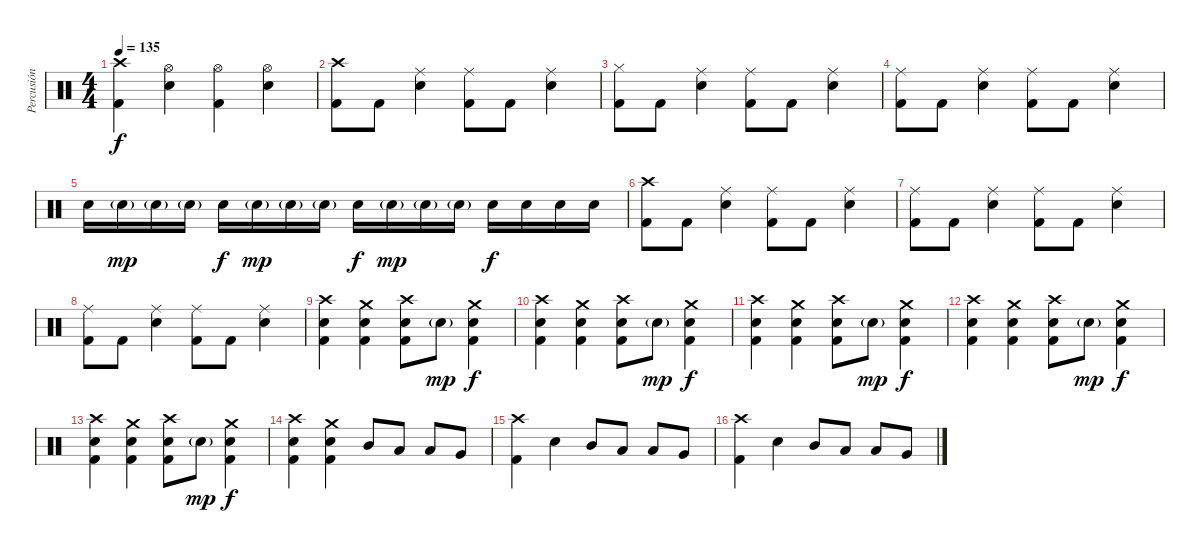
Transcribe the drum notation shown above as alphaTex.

\track ("Percusión" "Percusión") {instrument percussion}
\staff {score}
\articulation defaults
\ts (4 4)
\tempo 135
\clef neutral
\ks c
("Crash high (hit)" "Kick (hit) 2").4{dy f} ("Hi-Hat (open)" "Electric Snare (hit)").4 ("Hi-Hat (open)" "Kick (hit) 2").4 ("Hi-Hat (open)" "Electric Snare (hit)").4 |
("Crash high (hit)" "Kick (hit) 2").8 "Kick (hit) 2".8 ("Ride (middle)" "Electric Snare (hit)").4 ("Ride (middle)" "Kick (hit) 2").8 "Kick (hit) 2".8 ("Ride (middle)" "Electric Snare (hit)").4 |
("Hi-Hat (closed)" "Kick (hit) 2").8 "Kick (hit) 2".8 ("Ride (middle)" "Electric Snare (hit)").4 ("Ride (middle)" "Kick (hit) 2").8 "Kick (hit) 2".8 ("Ride (middle)" "Electric Snare (hit)").4 |
("Ride (middle)" "Kick (hit) 2").8 "Kick (hit) 2".8 ("Ride (middle)" "Electric Snare (hit)").4 ("Ride (middle)" "Kick (hit) 2").8 "Kick (hit) 2".8 ("Ride (middle)" "Electric Snare (hit)").4 |
"Electric Snare (hit)".16 "Electric Snare (hit)"{g}.16{dy mp} "Electric Snare (hit)"{g}.16 "Electric Snare (hit)"{g}.16 "Electric Snare (hit)".16{dy f} "Electric Snare (hit)"{g}.16{dy mp} "Electric Snare (hit)"{g}.16 "Electric Snare (hit)"{g}.16 "Electric Snare (hit)".16{dy f} "Electric Snare (hit)"{g}.16{dy mp} "Electric Snare (hit)"{g}.16 "Electric Snare (hit)"{g}.16 "Electric Snare (hit)".16{dy f} "Electric Snare (hit)".16 "Electric Snare (hit)".16 "Electric Snare (hit)".16 |
("Crash high (hit)" "Kick (hit) 2").8 "Kick (hit) 2".8 ("Ride (middle)" "Electric Snare (hit)").4 ("Ride (middle)" "Kick (hit) 2").8 "Kick (hit) 2".8 ("Ride (middle)" "Electric Snare (hit)").4 |
("Ride (middle)" "Kick (hit) 2").8 "Kick (hit) 2".8 ("Ride (middle)" "Electric Snare (hit)").4 ("Ride (middle)" "Kick (hit) 2").8 "Kick (hit) 2".8 ("Ride (middle)" "Electric Snare (hit)").4 |
("Ride (middle)" "Kick (hit) 2").8 "Kick (hit) 2".8 ("Ride (middle)" "Electric Snare (hit)").4 ("Ride (middle)" "Kick (hit) 2").8 "Kick (hit) 2".8 ("Ride (middle)" "Electric Snare (hit)").4 |
("Crash high (hit)" "Electric Snare (hit)" "Kick (hit) 2").4 ("Crash medium (hit)" "Electric Snare (hit)" "Kick (hit) 2").4 ("Crash high (hit)" "Electric Snare (hit)" "Kick (hit) 2").8 "Electric Snare (hit)"{g}.8{dy mp} ("Crash medium (hit)" "Electric Snare (hit)" "Kick (hit) 2").4{dy f} |
("Crash high (hit)" "Electric Snare (hit)" "Kick (hit) 2").4 ("Crash medium (hit)" "Electric Snare (hit)" "Kick (hit) 2").4 ("Crash high (hit)" "Electric Snare (hit)" "Kick (hit) 2").8 "Electric Snare (hit)"{g}.8{dy mp} ("Crash medium (hit)" "Electric Snare (hit)" "Kick (hit) 2").4{dy f} |
("Crash high (hit)" "Electric Snare (hit)" "Kick (hit) 2").4 ("Crash medium (hit)" "Electric Snare (hit)" "Kick (hit) 2").4 ("Crash high (hit)" "Electric Snare (hit)" "Kick (hit) 2").8 "Electric Snare (hit)"{g}.8{dy mp} ("Crash medium (hit)" "Electric Snare (hit)" "Kick (hit) 2").4{dy f} |
("Crash high (hit)" "Electric Snare (hit)" "Kick (hit) 2").4 ("Crash medium (hit)" "Electric Snare (hit)" "Kick (hit) 2").4 ("Crash high (hit)" "Electric Snare (hit)" "Kick (hit) 2").8 "Electric Snare (hit)"{g}.8{dy mp} ("Crash medium (hit)" "Electric Snare (hit)" "Kick (hit) 2").4{dy f} |
("Crash high (hit)" "Electric Snare (hit)" "Kick (hit) 2").4 ("Crash medium (hit)" "Electric Snare (hit)" "Kick (hit) 2").4 ("Crash high (hit)" "Electric Snare (hit)" "Kick (hit) 2").8 "Electric Snare (hit)"{g}.8{dy mp} ("Crash medium (hit)" "Electric Snare (hit)" "Kick (hit) 2").4{dy f} |
("Crash high (hit)" "Electric Snare (hit)" "Kick (hit) 2").4 ("Crash medium (hit)" "Electric Snare (hit)" "Kick (hit) 2").4 "Mid Tom (hit)".8 "Low Tom (hit)".8 "Low Tom (hit)".8 "Very Low Tom (hit)".8 |
("Crash high (hit)" "Kick (hit) 2").4 "Electric Snare (hit)".4 "Mid Tom (hit)".8 "Low Tom (hit)".8 "Low Tom (hit)".8 "Very Low Tom (hit)".8 |
("Crash high (hit)" "Kick (hit) 2").4 "Electric Snare (hit)".4 "Mid Tom (hit)".8 "Low Tom (hit)".8 "Low Tom (hit)".8 "Very Low Tom (hit)".8
